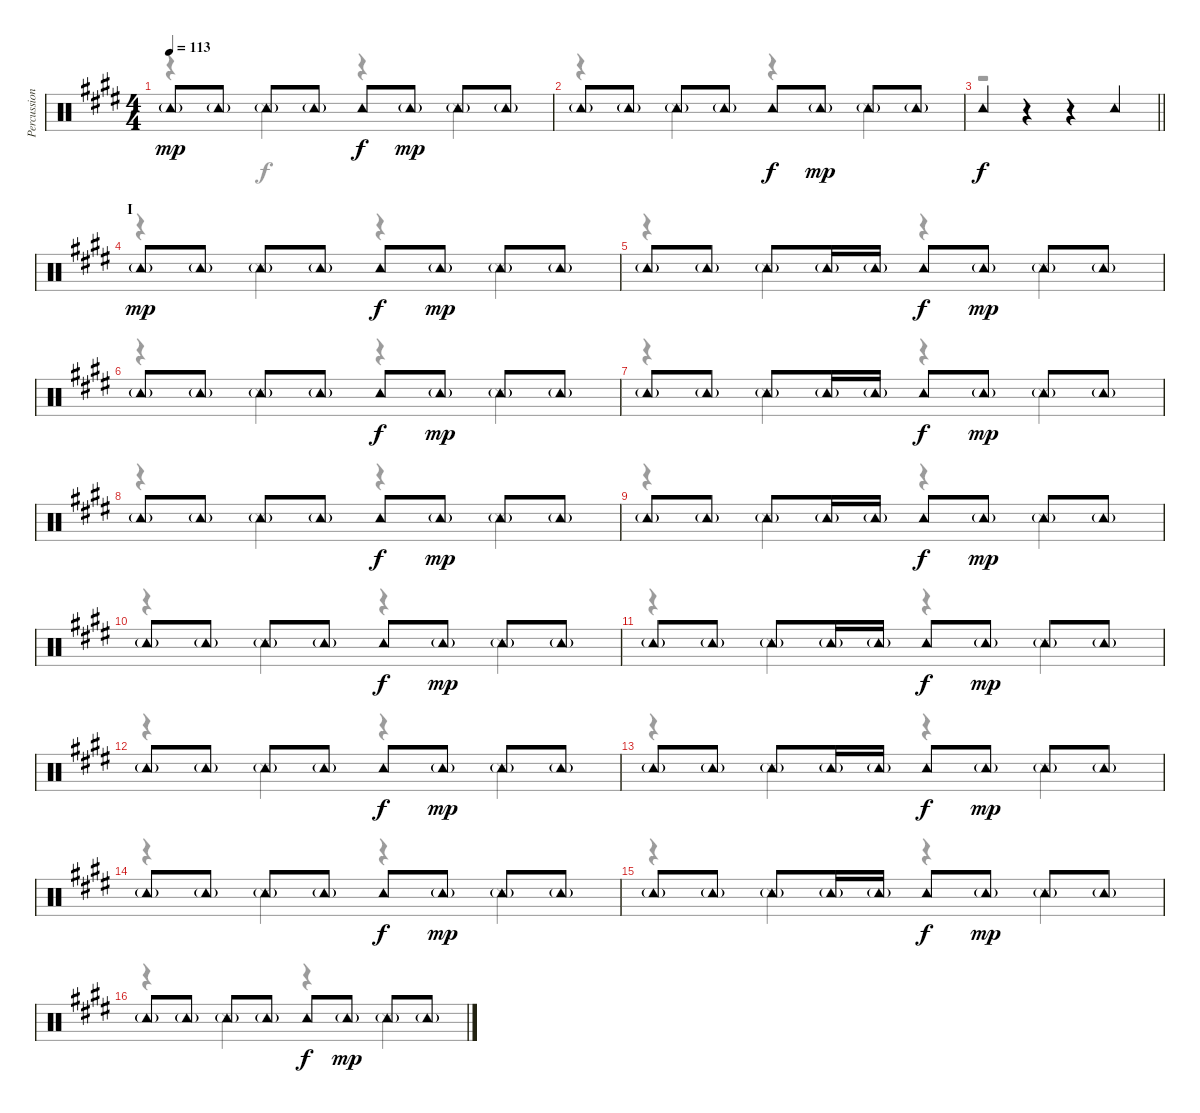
\track ("Percussion" "Percussion") {instrument percussion}
\staff {score}
\articulation defaults
\voice
\ts (4 4)
\tempo 113
\clef neutral
\ks e "Tambourine (hit)"{g}.8{dy mp} "Tambourine (hit)"{g}.8 "Tambourine (hit)"{g}.8 "Tambourine (hit)"{g}.8 "Tambourine (hit)".8{dy f} "Tambourine (hit)"{g}.8{dy mp} "Tambourine (hit)"{g}.8 "Tambourine (hit)"{g}.8
|
"Tambourine (hit)"{g}.8 "Tambourine (hit)"{g}.8 "Tambourine (hit)"{g}.8 "Tambourine (hit)"{g}.8 "Tambourine (hit)".8{dy f} "Tambourine (hit)"{g}.8{dy mp} "Tambourine (hit)"{g}.8 "Tambourine (hit)"{g}.8 |
\barLineRight lightlight "Tambourine (hit)".4{dy f}
r.4 r.4 "Tambourine (hit)".4 |
\section ("" "I")
"Tambourine (hit)"{g}.8{dy mp} "Tambourine (hit)"{g}.8 "Tambourine (hit)"{g}.8 "Tambourine (hit)"{g}.8 "Tambourine (hit)".8{dy f} "Tambourine (hit)"{g}.8{dy mp} "Tambourine (hit)"{g}.8 "Tambourine (hit)"{g}.8 |
"Tambourine (hit)"{g}.8 "Tambourine (hit)"{g}.8 "Tambourine (hit)"{g}.8 "Tambourine (hit)"{g}.16 "Tambourine (hit)"{g}.16 "Tambourine (hit)".8{dy f} "Tambourine (hit)"{g}.8{dy mp} "Tambourine (hit)"{g}.8 "Tambourine (hit)"{g}.8 |
"Tambourine (hit)"{g}.8 "Tambourine (hit)"{g}.8 "Tambourine (hit)"{g}.8 "Tambourine (hit)"{g}.8 "Tambourine (hit)".8{dy f} "Tambourine (hit)"{g}.8{dy mp} "Tambourine (hit)"{g}.8 "Tambourine (hit)"{g}.8 |
"Tambourine (hit)"{g}.8 "Tambourine (hit)"{g}.8 "Tambourine (hit)"{g}.8 "Tambourine (hit)"{g}.16 "Tambourine (hit)"{g}.16 "Tambourine (hit)".8{dy f} "Tambourine (hit)"{g}.8{dy mp} "Tambourine (hit)"{g}.8 "Tambourine (hit)"{g}.8 |
"Tambourine (hit)"{g}.8 "Tambourine (hit)"{g}.8 "Tambourine (hit)"{g}.8 "Tambourine (hit)"{g}.8 "Tambourine (hit)".8{dy f} "Tambourine (hit)"{g}.8{dy mp} "Tambourine (hit)"{g}.8 "Tambourine (hit)"{g}.8 |
"Tambourine (hit)"{g}.8 "Tambourine (hit)"{g}.8 "Tambourine (hit)"{g}.8 "Tambourine (hit)"{g}.16 "Tambourine (hit)"{g}.16 "Tambourine (hit)".8{dy f} "Tambourine (hit)"{g}.8{dy mp} "Tambourine (hit)"{g}.8 "Tambourine (hit)"{g}.8 |
"Tambourine (hit)"{g}.8 "Tambourine (hit)"{g}.8 "Tambourine (hit)"{g}.8 "Tambourine (hit)"{g}.8 "Tambourine (hit)".8{dy f} "Tambourine (hit)"{g}.8{dy mp} "Tambourine (hit)"{g}.8 "Tambourine (hit)"{g}.8 |
"Tambourine (hit)"{g}.8 "Tambourine (hit)"{g}.8 "Tambourine (hit)"{g}.8 "Tambourine (hit)"{g}.16 "Tambourine (hit)"{g}.16 "Tambourine (hit)".8{dy f} "Tambourine (hit)"{g}.8{dy mp} "Tambourine (hit)"{g}.8 "Tambourine (hit)"{g}.8 |
"Tambourine (hit)"{g}.8 "Tambourine (hit)"{g}.8 "Tambourine (hit)"{g}.8 "Tambourine (hit)"{g}.8 "Tambourine (hit)".8{dy f} "Tambourine (hit)"{g}.8{dy mp} "Tambourine (hit)"{g}.8 "Tambourine (hit)"{g}.8 |
"Tambourine (hit)"{g}.8 "Tambourine (hit)"{g}.8 "Tambourine (hit)"{g}.8 "Tambourine (hit)"{g}.16 "Tambourine (hit)"{g}.16 "Tambourine (hit)".8{dy f} "Tambourine (hit)"{g}.8{dy mp} "Tambourine (hit)"{g}.8 "Tambourine (hit)"{g}.8 |
"Tambourine (hit)"{g}.8 "Tambourine (hit)"{g}.8 "Tambourine (hit)"{g}.8 "Tambourine (hit)"{g}.8 "Tambourine (hit)".8{dy f} "Tambourine (hit)"{g}.8{dy mp} "Tambourine (hit)"{g}.8 "Tambourine (hit)"{g}.8 |
"Tambourine (hit)"{g}.8 "Tambourine (hit)"{g}.8 "Tambourine (hit)"{g}.8 "Tambourine (hit)"{g}.16 "Tambourine (hit)"{g}.16 "Tambourine (hit)".8{dy f} "Tambourine (hit)"{g}.8{dy mp} "Tambourine (hit)"{g}.8 "Tambourine (hit)"{g}.8 |
"Tambourine (hit)"{g}.8 "Tambourine (hit)"{g}.8 "Tambourine (hit)"{g}.8 "Tambourine (hit)"{g}.8 "Tambourine (hit)".8{dy f} "Tambourine (hit)"{g}.8{dy mp} "Tambourine (hit)"{g}.8 "Tambourine (hit)"{g}.8
\voice
\clef neutral
\ottava regular
\simile none
\ks e
r.4{dy f} "Snare (side stick) 3".4 r.4 "Snare (side stick) 3".4 |
r.4 "Snare (side stick) 3".4 r.4 "Snare (side stick) 3".4 |
\barLineRight lightlight
r.1 |
r.4 "Snare (side stick) 3".4 r.4 "Snare (side stick) 3".4 |
r.4 "Snare (side stick) 3".4 r.4 "Snare (side stick) 3".4 |
r.4 "Snare (side stick) 3".4 r.4 "Snare (side stick) 3".4 |
r.4 "Snare (side stick) 3".4 r.4 "Snare (side stick) 3".4 |
r.4 "Snare (side stick) 3".4 r.4 "Snare (side stick) 3".4 |
r.4 "Snare (side stick) 3".4 r.4 "Snare (side stick) 3".4 |
r.4 "Snare (side stick) 3".4 r.4 "Snare (side stick) 3".4 |
r.4 "Snare (side stick) 3".4 r.4 "Snare (side stick) 3".4 |
r.4 "Snare (side stick) 3".4 r.4 "Snare (side stick) 3".4 |
r.4 "Snare (side stick) 3".4 r.4 "Snare (side stick) 3".4 |
r.4 "Snare (side stick) 3".4 r.4 "Snare (side stick) 3".4 |
r.4 "Snare (side stick) 3".4 r.4 "Snare (side stick) 3".4 |
r.4 "Snare (side stick) 3".4 r.4 "Snare (side stick) 3".4
